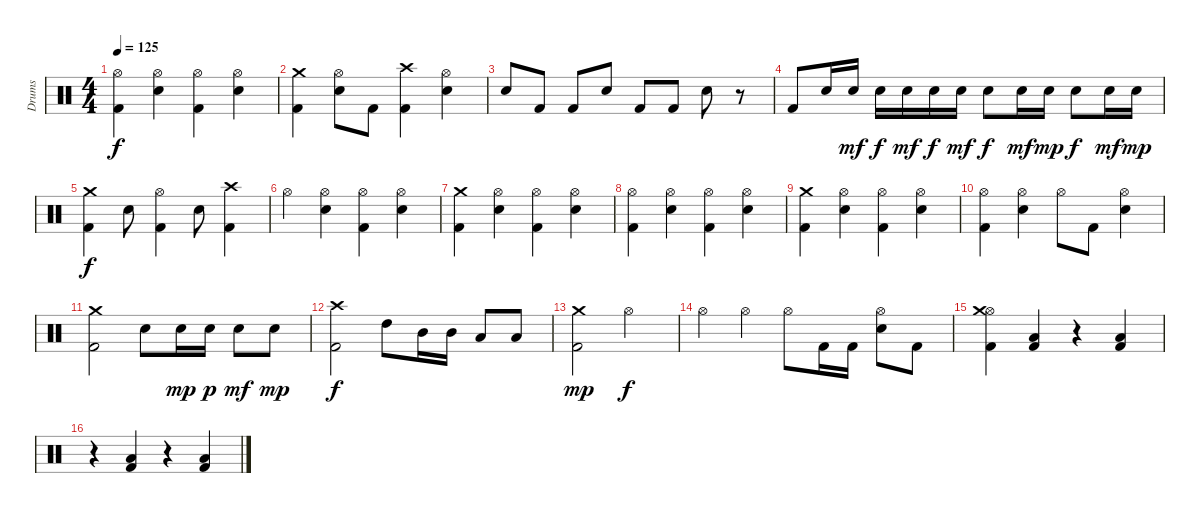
\track ("Drums" "Drums") {instrument percussion}
\staff {score}
\articulation defaults
\ts (4 4)
\tempo 125
\clef neutral
\ks c
("Hi-Hat (open)" "Kick (hit) 2").4{dy f} ("Hi-Hat (open)" "Electric Snare (hit)").4 ("Hi-Hat (open)" "Kick (hit) 2").4 ("Hi-Hat (open)" "Electric Snare (hit)").4 |
("Crash medium (hit)" "Kick (hit) 2").4 ("Hi-Hat (open)" "Electric Snare (hit)").8 "Kick (hit) 2".8 ("Crash high (hit)" "Kick (hit) 2").4 ("Hi-Hat (open)" "Electric Snare (hit)").4 |
"Electric Snare (hit)".8 "Kick (hit) 2".8 "Kick (hit) 2".8 "Electric Snare (hit)".8 "Kick (hit) 2".8 "Kick (hit) 2".8 "Electric Snare (hit)".8 r.8 |
"Kick (hit) 2".8 "Electric Snare (hit)".16 "Electric Snare (hit)".16{dy mf} "Electric Snare (hit)".16{dy f} "Electric Snare (hit)".16{dy mf} "Electric Snare (hit)".16{dy f} "Electric Snare (hit)".16{dy mf} "Electric Snare (hit)".8{dy f} "Electric Snare (hit)".16{dy mf} "Electric Snare (hit)".16{dy mp} "Electric Snare (hit)".8{dy f} "Electric Snare (hit)".16{dy mf} "Electric Snare (hit)".16{dy mp} |
("Crash medium (hit)" "Kick (hit) 2").4{dy f} "Electric Snare (hit)".8 ("Hi-Hat (open)" "Kick (hit) 2").4 "Snare (hit) 2".8 ("Crash high (hit)" "Kick (hit) 2").4 |
"Hi-Hat (open)".4 ("Hi-Hat (open)" "Electric Snare (hit)").4 ("Hi-Hat (open)" "Kick (hit) 2").4 ("Hi-Hat (open)" "Electric Snare (hit)").4 |
("Crash medium (hit)" "Kick (hit) 2").4 ("Hi-Hat (open)" "Electric Snare (hit)").4 ("Hi-Hat (open)" "Kick (hit) 2").4 ("Hi-Hat (open)" "Electric Snare (hit)").4 |
("Hi-Hat (open)" "Kick (hit) 2").4 ("Hi-Hat (open)" "Electric Snare (hit)").4 ("Hi-Hat (open)" "Kick (hit) 2").4 ("Hi-Hat (open)" "Electric Snare (hit)").4 |
("Crash medium (hit)" "Kick (hit) 2").4 ("Hi-Hat (open)" "Electric Snare (hit)").4 ("Hi-Hat (open)" "Kick (hit) 2").4 ("Hi-Hat (open)" "Electric Snare (hit)").4 |
("Hi-Hat (open)" "Kick (hit) 2").4 ("Hi-Hat (open)" "Electric Snare (hit)").4 "Hi-Hat (open)".8 "Kick (hit) 2".8 ("Hi-Hat (open)" "Electric Snare (hit)").4 |
("Crash medium (hit)" "Kick (hit) 2").2 "Electric Snare (hit)".8 "Electric Snare (hit)".16{dy mp} "Electric Snare (hit)".16{dy p} "Electric Snare (hit)".8{dy mf} "Electric Snare (hit)".8{dy mp} |
("Crash high (hit)" "Kick (hit) 2").2{dy f} "High Tom (hit)".8 "Mid Tom (hit)".16 "Mid Tom (hit)".16 "Low Tom (hit)".8 "Low Tom (hit)".8 |
("Crash medium (hit)" "Kick (hit) 2").2{dy mp} "Hi-Hat (open)".2{dy f} |
"Hi-Hat (open)".4 "Hi-Hat (open)".4 "Hi-Hat (open)".8 "Kick (hit) 2".16 "Kick (hit) 2".16 ("Hi-Hat (open)" "Electric Snare (hit)").8 "Kick (hit) 2".8 |
("Hi-Hat (open)" "Crash medium (hit)" "Kick (hit) 2").4 ("Low Tom (hit)" "Kick (hit) 2").4 r.4 ("Low Tom (hit)" "Kick (hit) 2").4 |
r.4 ("Low Tom (hit)" "Kick (hit) 2").4 r.4 ("Low Tom (hit)" "Kick (hit) 2").4
